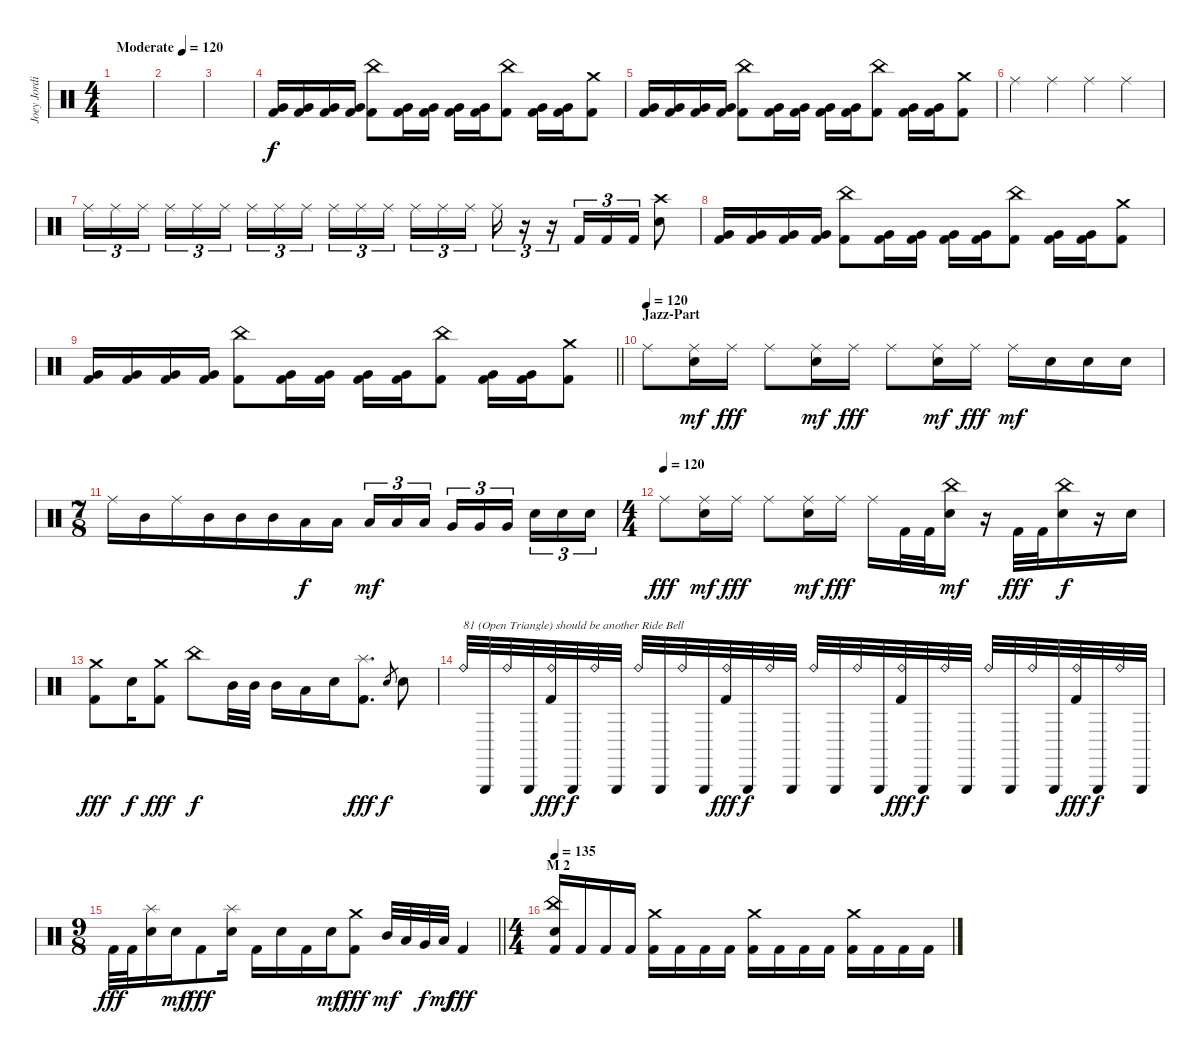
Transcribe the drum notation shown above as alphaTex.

\track ("Joey Jordison" "Joey Jordi") {instrument percussion}
\staff {score}
\articulation defaults
\ts (4 4)
\tempo (120 "Moderate")
\clef neutral
\ks c
|
|
|
("Very Low Tom (hit)" "Kick (hit) 2").16 ("Very Low Tom (hit)" "Kick (hit) 2").16 ("Very Low Tom (hit)" "Kick (hit) 2").16 ("Very Low Tom (hit)" "Kick (hit) 2").16 ("China (hit)" "Kick (hit) 2").8 ("Very Low Tom (hit)" "Kick (hit) 2").16 ("Very Low Tom (hit)" "Kick (hit) 2").16 ("Very Low Tom (hit)" "Kick (hit) 2").16 ("Very Low Tom (hit)" "Kick (hit) 2").16 ("China (hit)" "Kick (hit) 2").8 ("Very Low Tom (hit)" "Kick (hit) 2").16 ("Very Low Tom (hit)" "Kick (hit) 2").16 ("Crash medium (hit)" "Kick (hit) 2").8 |
("Very Low Tom (hit)" "Kick (hit) 2").16 ("Very Low Tom (hit)" "Kick (hit) 2").16 ("Very Low Tom (hit)" "Kick (hit) 2").16 ("Very Low Tom (hit)" "Kick (hit) 2").16 ("China (hit)" "Kick (hit) 2").8 ("Very Low Tom (hit)" "Kick (hit) 2").16 ("Very Low Tom (hit)" "Kick (hit) 2").16 ("Very Low Tom (hit)" "Kick (hit) 2").16 ("Very Low Tom (hit)" "Kick (hit) 2").16 ("China (hit)" "Kick (hit) 2").8 ("Very Low Tom (hit)" "Kick (hit) 2").16 ("Very Low Tom (hit)" "Kick (hit) 2").16 ("Crash medium (hit)" "Kick (hit) 2").8 |
"Ride (middle)".4 "Ride (middle)".4 "Ride (middle)".4 "Ride (middle)".4 |
"Ride (middle)".16{tu (3 2)} "Ride (middle)".16{tu (3 2)} "Ride (middle)".16{tu (3 2) beam splitsecondary} "Ride (middle)".16{tu (3 2)} "Ride (middle)".16{tu (3 2)} "Ride (middle)".16{tu (3 2)} "Ride (middle)".16{tu (3 2)} "Ride (middle)".16{tu (3 2)} "Ride (middle)".16{tu (3 2) beam splitsecondary} "Ride (middle)".16{tu (3 2)} "Ride (middle)".16{tu (3 2)} "Ride (middle)".16{tu (3 2)} "Ride (middle)".16{tu (3 2)} "Ride (middle)".16{tu (3 2)} "Ride (middle)".16{tu (3 2) beam splitsecondary} "Ride (middle)".16{tu (3 2)} r.16{tu (3 2)} r.16{tu (3 2)} "Kick (hit) 2".16{tu (3 2)} "Kick (hit) 2".16{tu (3 2)} "Kick (hit) 2".16{tu (3 2)} ("Crash high (hit)" "Electric Snare (hit)").8 |
("Very Low Tom (hit)" "Kick (hit) 2").16 ("Very Low Tom (hit)" "Kick (hit) 2").16 ("Very Low Tom (hit)" "Kick (hit) 2").16 ("Very Low Tom (hit)" "Kick (hit) 2").16 ("China (hit)" "Kick (hit) 2").8 ("Very Low Tom (hit)" "Kick (hit) 2").16 ("Very Low Tom (hit)" "Kick (hit) 2").16 ("Very Low Tom (hit)" "Kick (hit) 2").16 ("Very Low Tom (hit)" "Kick (hit) 2").16 ("China (hit)" "Kick (hit) 2").8 ("Very Low Tom (hit)" "Kick (hit) 2").16 ("Very Low Tom (hit)" "Kick (hit) 2").16 ("Crash medium (hit)" "Kick (hit) 2").8 |
\barLineRight lightlight
("Very Low Tom (hit)" "Kick (hit) 2").16 ("Very Low Tom (hit)" "Kick (hit) 2").16 ("Very Low Tom (hit)" "Kick (hit) 2").16 ("Very Low Tom (hit)" "Kick (hit) 2").16 ("China (hit)" "Kick (hit) 2").8 ("Very Low Tom (hit)" "Kick (hit) 2").16 ("Very Low Tom (hit)" "Kick (hit) 2").16 ("Very Low Tom (hit)" "Kick (hit) 2").16 ("Very Low Tom (hit)" "Kick (hit) 2").16 ("China (hit)" "Kick (hit) 2").8 ("Very Low Tom (hit)" "Kick (hit) 2").16 ("Very Low Tom (hit)" "Kick (hit) 2").16 ("Crash medium (hit)" "Kick (hit) 2").8 |
\section ("" "Jazz-Part")
\tempo (120)
"Ride (middle)".8 ("Ride (middle)" "Electric Snare (hit)").16{dy mf} "Ride (middle)".16{dy fff} "Ride (middle)".8 ("Ride (middle)" "Electric Snare (hit)").16{dy mf} "Ride (middle)".16{dy fff} "Ride (middle)".8 ("Ride (middle)" "Electric Snare (hit)").16{dy mf} "Ride (middle)".16{dy fff} "Ride (middle)".16{dy mf} "Electric Snare (hit)".16 "Electric Snare (hit)".16 "Electric Snare (hit)".16 |
\ts (7 8)
"Ride (middle)".16 "Mid Tom (hit)".16 "Ride (middle)".16 "Mid Tom (hit)".16 "Mid Tom (hit)".16 "Mid Tom (hit)".16 "Low Tom (hit)".16{dy f} "Low Tom (hit)".16 "Low Tom (hit)".16{tu (3 2) dy mf} "Low Tom (hit)".16{tu (3 2)} "Low Tom (hit)".16{tu (3 2)} "Very Low Tom (hit)".16{tu (3 2)} "Very Low Tom (hit)".16{tu (3 2)} "Very Low Tom (hit)".16{tu (3 2)} "Electric Snare (hit)".16{tu (3 2)} "Electric Snare (hit)".16{tu (3 2)} "Electric Snare (hit)".16{tu (3 2)} |
\ts (4 4)
\tempo (120)
"Ride (middle)".8{dy fff} ("Ride (middle)" "Electric Snare (hit)").16{dy mf} "Ride (middle)".16{dy fff} "Ride (middle)".8 ("Ride (middle)" "Electric Snare (hit)").16{dy mf} "Ride (middle)".16{dy fff} "Ride (middle)".16 "Kick (hit) 2".32 "Kick (hit) 2".32 ("China (hit)" "Electric Snare (hit)").16{dy mf} r.16 "Kick (hit) 2".32{dy fff} "Kick (hit) 2".32 ("China (hit)" "Electric Snare (hit)").16{dy f} r.16 "Electric Snare (hit)".16 |
("Crash medium (hit)" "Kick (hit) 2").8{dy fff} "Electric Snare (hit)".16{dy f} ("Crash medium (hit)" "Kick (hit) 2").8{dy fff} "China (hit)".8{dy f} "Mid Tom (hit)".32 "Mid Tom (hit)".32 "Mid Tom (hit)".16 "Low Tom (hit)".16 "Electric Snare (hit)".16 ("Splash (hit)" "Kick (hit) 2").8{d dy fff} "Electric Snare (hit)".8{gr dy f} "Electric Snare (hit)".8 |
"Ride (bell)".32{txt "81 (Open Triangle) should be another Ride Bell"} "Triangle (hit)".32 "Ride (bell)".32 "Triangle (hit)".32 ("Ride (bell)" "Kick (hit) 2").32{dy fff} "Triangle (hit)".32{dy f} "Ride (bell)".32 "Triangle (hit)".32 "Ride (bell)".32 "Triangle (hit)".32 "Ride (bell)".32 "Triangle (hit)".32 ("Ride (bell)" "Kick (hit) 2").32{dy fff} "Triangle (hit)".32{dy f} "Ride (bell)".32 "Triangle (hit)".32 "Ride (bell)".32 "Triangle (hit)".32 "Ride (bell)".32 "Triangle (hit)".32 ("Ride (bell)" "Kick (hit) 2").32{dy fff} "Triangle (hit)".32{dy f} "Ride (bell)".32 "Triangle (hit)".32 "Ride (bell)".32 "Triangle (hit)".32 "Ride (bell)".32 "Triangle (hit)".32 ("Ride (bell)" "Kick (hit) 2").32{dy fff} "Triangle (hit)".32{dy f} "Ride (bell)".32 "Triangle (hit)".32 |
\ts (9 8)
\barLineRight lightlight "Kick (hit) 2".32{dy fff} "Kick (hit) 2".32
("Splash (hit)" "Electric Snare (hit)").16 "Electric Snare (hit)".16{dy mf} "Kick (hit) 2".8{dy fff} ("Splash (hit)" "Electric Snare (hit)").16 "Kick (hit) 2".16 "Electric Snare (hit)".16 "Kick (hit) 2".16 "Electric Snare (hit)".16{dy mf} ("Crash medium (hit)" "Kick (hit) 2").8{dy fff} "Mid Tom (hit)".32{dy mf} "Low Tom (hit)".32 "Very Low Tom (hit)".32{dy f} "Low Floor Tom (hit)".32{dy mf} "Kick (hit) 2".4{dy fff} |
\ts (4 4)
\section ("" "M 2")
\tempo 135
("China (hit)" "Electric Snare (hit)" "Kick (hit) 2").16 "Kick (hit) 2".16 "Kick (hit) 2".16 "Kick (hit) 2".16 ("Crash medium (hit)" "Kick (hit) 2").16 "Kick (hit) 2".16 "Kick (hit) 2".16 "Kick (hit) 2".16 ("Crash medium (hit)" "Kick (hit) 2").16 "Kick (hit) 2".16 "Kick (hit) 2".16 "Kick (hit) 2".16 ("Crash medium (hit)" "Kick (hit) 2").16 "Kick (hit) 2".16 "Kick (hit) 2".16 "Kick (hit) 2".16
